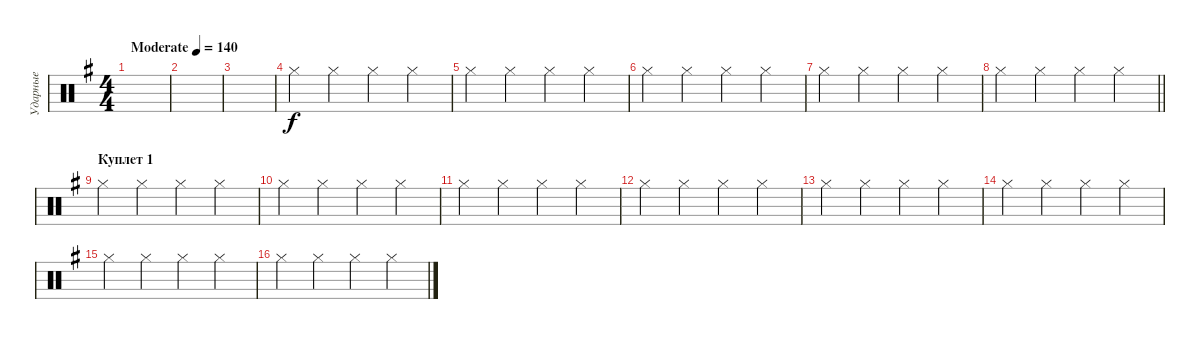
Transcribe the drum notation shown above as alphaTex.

\track ("Ударные" "Ударные") {instrument percussion}
\staff {score}
\articulation defaults
\ts (4 4)
\tempo (140 "Moderate")
\clef neutral
\ks g
|
|
|
"Hi-Hat (closed)".4 "Hi-Hat (closed)".4 "Hi-Hat (closed)".4 "Hi-Hat (closed)".4 |
"Hi-Hat (closed)".4 "Hi-Hat (closed)".4 "Hi-Hat (closed)".4 "Hi-Hat (closed)".4 |
"Hi-Hat (closed)".4 "Hi-Hat (closed)".4 "Hi-Hat (closed)".4 "Hi-Hat (closed)".4 |
"Hi-Hat (closed)".4 "Hi-Hat (closed)".4 "Hi-Hat (closed)".4 "Hi-Hat (closed)".4 |
\barLineRight lightlight "Hi-Hat (closed)".4 "Hi-Hat (closed)".4 "Hi-Hat (closed)".4 "Hi-Hat (closed)".4
|
\section ("" "Куплет 1")
"Hi-Hat (closed)".4 "Hi-Hat (closed)".4 "Hi-Hat (closed)".4 "Hi-Hat (closed)".4 |
"Hi-Hat (closed)".4 "Hi-Hat (closed)".4 "Hi-Hat (closed)".4 "Hi-Hat (closed)".4 |
"Hi-Hat (closed)".4 "Hi-Hat (closed)".4 "Hi-Hat (closed)".4 "Hi-Hat (closed)".4 |
"Hi-Hat (closed)".4 "Hi-Hat (closed)".4 "Hi-Hat (closed)".4 "Hi-Hat (closed)".4 |
"Hi-Hat (closed)".4 "Hi-Hat (closed)".4 "Hi-Hat (closed)".4 "Hi-Hat (closed)".4 |
"Hi-Hat (closed)".4 "Hi-Hat (closed)".4 "Hi-Hat (closed)".4 "Hi-Hat (closed)".4 |
"Hi-Hat (closed)".4 "Hi-Hat (closed)".4 "Hi-Hat (closed)".4 "Hi-Hat (closed)".4 |
"Hi-Hat (closed)".4 "Hi-Hat (closed)".4 "Hi-Hat (closed)".4 "Hi-Hat (closed)".4
